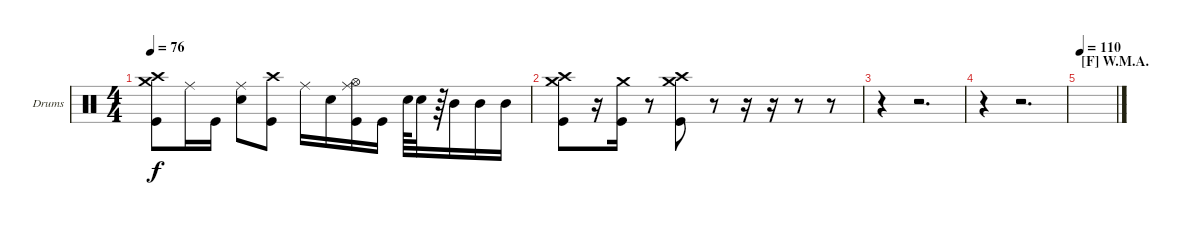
\defaultSystemsLayout 4
\bracketExtendMode nobrackets
\firstSystemTrackNameOrientation horizontal
\otherSystemsTrackNameOrientation horizontal
\track ("Dave Abbruzzese" "Drums") {solo instrument percussion}
\staff {score}
\articulation defaults
\ts (4 4)
\tempo 76
\clef neutral
\ks c
("Crash high (hit)" "Kick (hit)" "Crash medium (hit)").8{dy f} "Ride (middle)".16 "Kick (hit)".16 ("Snare (hit) 2" "Ride (middle)").8 ("Kick (hit)" "Crash high (hit)").8 "Ride (middle)".16 "Snare (hit) 2".16 ("Hi-Hat (open)" "Kick (hit)" "Ride (middle)").16 "Kick (hit)".16 "Snare (hit) 2".64 "Snare (hit) 2".32 r.64 "Mid Tom (hit)".16 "Mid Tom (hit)".16 "Mid Tom (hit)".16 |
("Crash high (hit)" "Kick (hit)" "Crash medium (hit)").8 r.16 ("Kick (hit)" "Crash medium (hit)").16 r.8 ("Crash high (hit)" "Kick (hit)" "Crash medium (hit)").8 r.8 r.16 r.16 r.8 r.8 |
r.4 r.2{d} |
r.4 r.2{d} |
\section ("F" "W.M.A.")
\tempo 110
